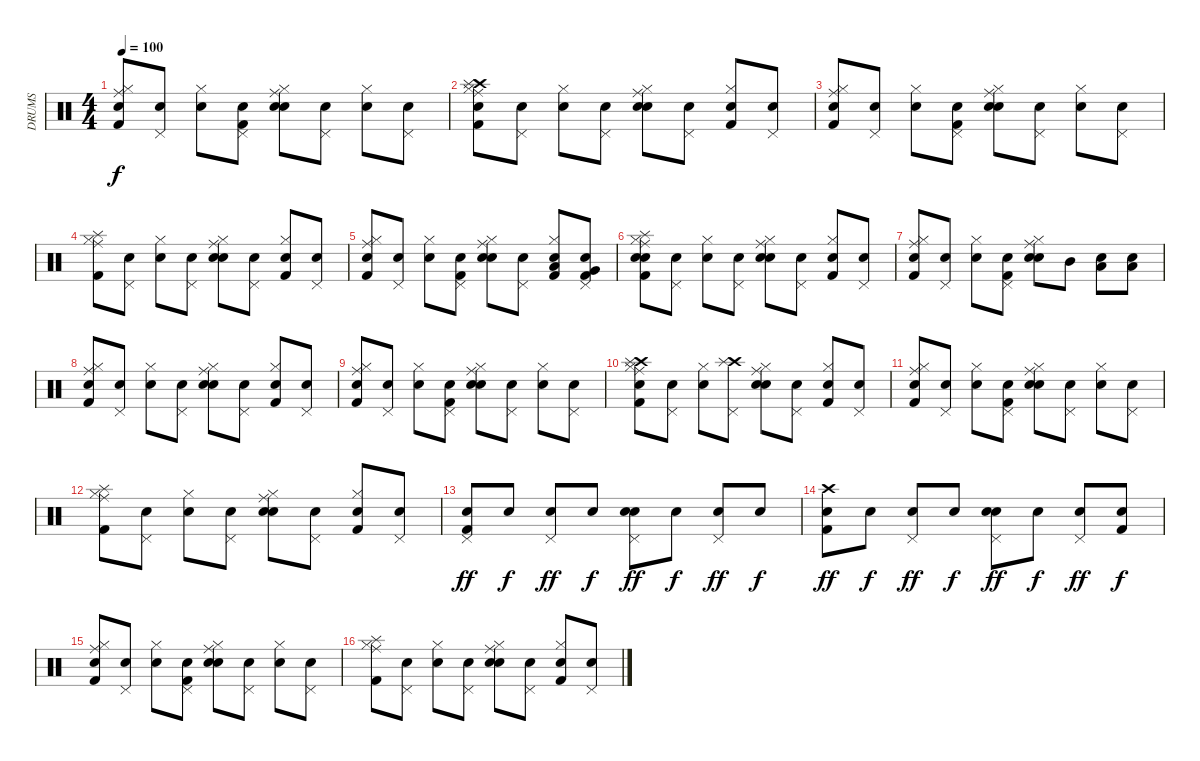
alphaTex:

\track ("DRUMS" "DRUMS") {instrument percussion}
\staff {score}
\articulation defaults
\ts (4 4)
\tempo 100
\clef neutral
\ks c
("Snare (hit)" "Ride (middle)" "Hi-Hat (closed)" "Kick (hit) 2").8{dy f} ("Snare (hit)" "Pedal Hi-Hat (hit)").8 ("Snare (hit)" "Hi-Hat (closed)").8 ("Snare (hit)" "Pedal Hi-Hat (hit)" "Kick (hit) 2").8 ("Snare (hit)" "Ride (middle)" "Hi-Hat (closed)" "Snare (hit) 2").8 ("Snare (hit)" "Pedal Hi-Hat (hit)").8 ("Snare (hit)" "Hi-Hat (closed)").8 ("Snare (hit)" "Pedal Hi-Hat (hit)").8 |
("Snare (hit)" "Hi-Hat (closed)" "Ride (middle)" "Kick (hit) 2" "Crash high (hit)" "Splash (hit)").8 ("Snare (hit)" "Pedal Hi-Hat (hit)").8 ("Snare (hit)" "Hi-Hat (closed)").8 ("Snare (hit)" "Pedal Hi-Hat (hit)").8 ("Snare (hit)" "Ride (middle)" "Hi-Hat (closed)" "Snare (hit) 2").8 ("Snare (hit)" "Pedal Hi-Hat (hit)").8 ("Snare (hit)" "Hi-Hat (closed)" "Kick (hit) 2").8 ("Snare (hit)" "Pedal Hi-Hat (hit)").8 |
("Snare (hit)" "Ride (middle)" "Hi-Hat (closed)" "Kick (hit) 2").8 ("Snare (hit)" "Pedal Hi-Hat (hit)").8 ("Snare (hit)" "Hi-Hat (closed)").8 ("Snare (hit)" "Pedal Hi-Hat (hit)" "Kick (hit) 2").8 ("Snare (hit)" "Ride (middle)" "Hi-Hat (closed)" "Snare (hit) 2").8 ("Snare (hit)" "Pedal Hi-Hat (hit)").8 ("Snare (hit)" "Hi-Hat (closed)").8 ("Snare (hit)" "Pedal Hi-Hat (hit)").8 |
("Splash (hit)" "Kick (hit) 2" "Ride (middle)" "Hi-Hat (closed)").8 ("Snare (hit)" "Pedal Hi-Hat (hit)").8 ("Snare (hit)" "Hi-Hat (closed)").8 ("Snare (hit)" "Pedal Hi-Hat (hit)").8 ("Snare (hit)" "Ride (middle)" "Hi-Hat (closed)" "Snare (hit) 2").8 ("Snare (hit)" "Pedal Hi-Hat (hit)").8 ("Snare (hit)" "Hi-Hat (closed)" "Kick (hit) 2").8 ("Snare (hit)" "Pedal Hi-Hat (hit)").8 |
("Snare (hit)" "Ride (middle)" "Hi-Hat (closed)" "Kick (hit) 2").8 ("Snare (hit)" "Pedal Hi-Hat (hit)").8 ("Snare (hit)" "Hi-Hat (closed)").8 ("Snare (hit)" "Pedal Hi-Hat (hit)" "Kick (hit) 2").8 ("Snare (hit)" "Ride (middle)" "Hi-Hat (closed)" "Snare (hit) 2").8 ("Snare (hit)" "Pedal Hi-Hat (hit)").8 ("Snare (hit)" "Kick (hit) 2" "Low Tom (hit)" "Hi-Hat (closed)").8 ("Snare (hit)" "Very Low Tom (hit)" "Kick (hit) 2" "Pedal Hi-Hat (hit)").8 |
("Snare (hit)" "Ride (middle)" "Hi-Hat (closed)" "Kick (hit) 2" "Snare (hit) 2" "Splash (hit)").8 ("Snare (hit)" "Pedal Hi-Hat (hit)").8 ("Snare (hit)" "Hi-Hat (closed)").8 ("Snare (hit)" "Pedal Hi-Hat (hit)").8 ("Snare (hit)" "Ride (middle)" "Hi-Hat (closed)" "Snare (hit) 2").8 ("Snare (hit)" "Pedal Hi-Hat (hit)").8 ("Snare (hit)" "Hi-Hat (closed)" "Kick (hit) 2").8 ("Snare (hit)" "Pedal Hi-Hat (hit)").8 |
("Snare (hit)" "Ride (middle)" "Hi-Hat (closed)" "Kick (hit) 2").8 ("Snare (hit)" "Pedal Hi-Hat (hit)").8 ("Snare (hit)" "Hi-Hat (closed)").8 ("Snare (hit)" "Pedal Hi-Hat (hit)" "Kick (hit) 2").8 ("Snare (hit)" "Ride (middle)" "Hi-Hat (closed)" "Snare (hit) 2").8 "Mid Tom (hit)".8 ("Snare (hit)" "Low Tom (hit)").8 ("Snare (hit)" "Low Tom (hit)").8 |
("Snare (hit)" "Kick (hit) 2" "Ride (middle)" "Hi-Hat (closed)").8 ("Snare (hit)" "Pedal Hi-Hat (hit)").8 ("Snare (hit)" "Hi-Hat (closed)").8 ("Snare (hit)" "Pedal Hi-Hat (hit)").8 ("Snare (hit)" "Ride (middle)" "Hi-Hat (closed)" "Snare (hit) 2").8 ("Snare (hit)" "Pedal Hi-Hat (hit)").8 ("Snare (hit)" "Hi-Hat (closed)" "Kick (hit) 2").8 ("Snare (hit)" "Pedal Hi-Hat (hit)").8 |
("Snare (hit)" "Ride (middle)" "Hi-Hat (closed)" "Kick (hit) 2").8 ("Snare (hit)" "Pedal Hi-Hat (hit)").8 ("Snare (hit)" "Hi-Hat (closed)").8 ("Snare (hit)" "Pedal Hi-Hat (hit)" "Kick (hit) 2").8 ("Snare (hit)" "Ride (middle)" "Hi-Hat (closed)" "Snare (hit) 2").8 ("Snare (hit)" "Pedal Hi-Hat (hit)").8 ("Snare (hit)" "Hi-Hat (closed)").8 ("Snare (hit)" "Pedal Hi-Hat (hit)").8 |
("Snare (hit)" "Hi-Hat (closed)" "Ride (middle)" "Kick (hit) 2" "Crash high (hit)" "Splash (hit)").8 ("Snare (hit)" "Pedal Hi-Hat (hit)").8 ("Snare (hit)" "Hi-Hat (closed)").8 ("Crash high (hit)" "Splash (hit)" "Pedal Hi-Hat (hit)").8 ("Snare (hit)" "Ride (middle)" "Hi-Hat (closed)" "Snare (hit) 2").8 ("Snare (hit)" "Pedal Hi-Hat (hit)").8 ("Snare (hit)" "Hi-Hat (closed)" "Kick (hit) 2").8 ("Snare (hit)" "Pedal Hi-Hat (hit)").8 |
("Snare (hit)" "Ride (middle)" "Hi-Hat (closed)" "Kick (hit) 2").8 ("Snare (hit)" "Pedal Hi-Hat (hit)").8 ("Snare (hit)" "Hi-Hat (closed)").8 ("Snare (hit)" "Pedal Hi-Hat (hit)" "Kick (hit) 2").8 ("Snare (hit)" "Ride (middle)" "Hi-Hat (closed)" "Snare (hit) 2").8 ("Snare (hit)" "Pedal Hi-Hat (hit)").8 ("Snare (hit)" "Hi-Hat (closed)").8 ("Snare (hit)" "Pedal Hi-Hat (hit)").8 |
("Splash (hit)" "Kick (hit) 2" "Ride (middle)" "Hi-Hat (closed)").8 ("Snare (hit)" "Pedal Hi-Hat (hit)").8 ("Snare (hit)" "Hi-Hat (closed)").8 ("Snare (hit)" "Pedal Hi-Hat (hit)").8 ("Snare (hit)" "Ride (middle)" "Hi-Hat (closed)" "Snare (hit) 2").8 ("Snare (hit)" "Pedal Hi-Hat (hit)").8 ("Snare (hit)" "Hi-Hat (closed)" "Kick (hit) 2").8 ("Snare (hit)" "Pedal Hi-Hat (hit)").8 |
("Snare (hit)" "Kick (hit) 2" "Pedal Hi-Hat (hit)").8{dy ff} "Snare (hit)".8{dy f} ("Snare (hit)" "Pedal Hi-Hat (hit)").8{dy ff} "Snare (hit)".8{dy f} ("Snare (hit)" "Electric Snare (hit)" "Pedal Hi-Hat (hit)").8{dy ff} "Snare (hit)".8{dy f} ("Snare (hit)" "Pedal Hi-Hat (hit)").8{dy ff} "Snare (hit)".8{dy f} |
("Snare (hit)" "Kick (hit) 2" "Crash high (hit)").8{dy ff} "Snare (hit)".8{dy f} ("Snare (hit)" "Pedal Hi-Hat (hit)").8{dy ff} "Snare (hit)".8{dy f} ("Snare (hit)" "Electric Snare (hit)" "Pedal Hi-Hat (hit)").8{dy ff} "Snare (hit)".8{dy f} ("Snare (hit)" "Pedal Hi-Hat (hit)").8{dy ff} ("Snare (hit)" "Kick (hit) 2").8{dy f} |
("Snare (hit)" "Ride (middle)" "Hi-Hat (closed)" "Kick (hit) 2").8 ("Snare (hit)" "Pedal Hi-Hat (hit)").8 ("Snare (hit)" "Hi-Hat (closed)").8 ("Snare (hit)" "Pedal Hi-Hat (hit)" "Kick (hit) 2").8 ("Snare (hit)" "Ride (middle)" "Hi-Hat (closed)" "Snare (hit) 2").8 ("Snare (hit)" "Pedal Hi-Hat (hit)").8 ("Snare (hit)" "Hi-Hat (closed)").8 ("Snare (hit)" "Pedal Hi-Hat (hit)").8 |
("Splash (hit)" "Kick (hit) 2" "Ride (middle)" "Hi-Hat (closed)").8 ("Snare (hit)" "Pedal Hi-Hat (hit)").8 ("Snare (hit)" "Hi-Hat (closed)").8 ("Snare (hit)" "Pedal Hi-Hat (hit)").8 ("Snare (hit)" "Ride (middle)" "Hi-Hat (closed)" "Snare (hit) 2").8 ("Snare (hit)" "Pedal Hi-Hat (hit)").8 ("Snare (hit)" "Hi-Hat (closed)" "Kick (hit) 2").8 ("Snare (hit)" "Pedal Hi-Hat (hit)").8
